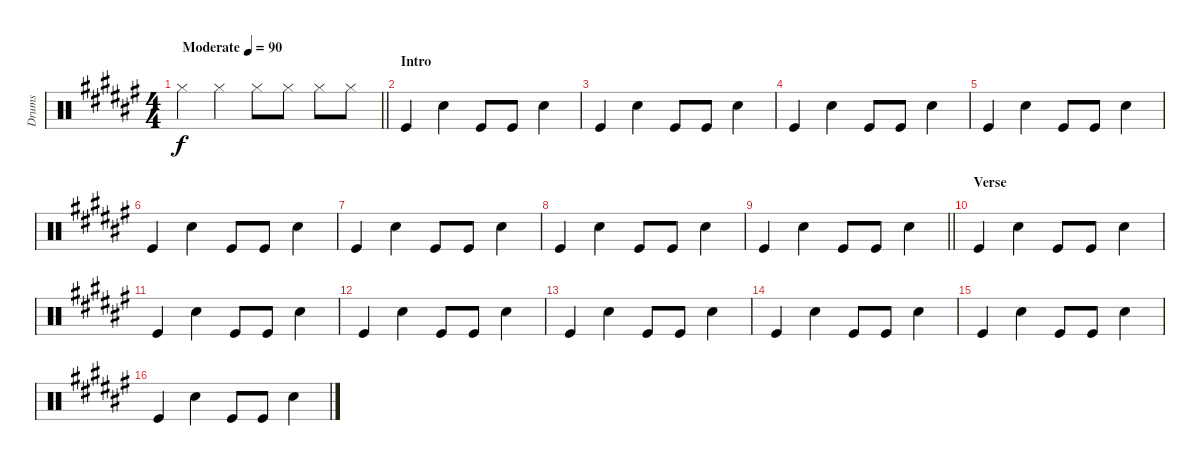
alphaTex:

\track ("Drums" "Drums") {instrument percussion}
\staff {score}
\articulation defaults
\ts (4 4)
\tempo (90 "Moderate")
\clef neutral
\barLineRight lightlight
\ks d#minor "Hi-Hat (closed)".4{dy f} "Hi-Hat (closed)".4 "Hi-Hat (closed)".8 "Hi-Hat (closed)".8 "Hi-Hat (closed)".8 "Hi-Hat (closed)".8
|
\section ("" "Intro")
"Kick (hit)".4 "Snare (hit) 2".4 "Kick (hit)".8 "Kick (hit)".8 "Snare (hit) 2".4 |
"Kick (hit)".4 "Snare (hit) 2".4 "Kick (hit)".8 "Kick (hit)".8 "Snare (hit) 2".4 |
"Kick (hit)".4 "Snare (hit) 2".4 "Kick (hit)".8 "Kick (hit)".8 "Snare (hit) 2".4 |
"Kick (hit)".4 "Snare (hit) 2".4 "Kick (hit)".8 "Kick (hit)".8 "Snare (hit) 2".4 |
"Kick (hit)".4 "Snare (hit) 2".4 "Kick (hit)".8 "Kick (hit)".8 "Snare (hit) 2".4 |
"Kick (hit)".4 "Snare (hit) 2".4 "Kick (hit)".8 "Kick (hit)".8 "Snare (hit) 2".4 |
"Kick (hit)".4 "Snare (hit) 2".4 "Kick (hit)".8 "Kick (hit)".8 "Snare (hit) 2".4 |
\barLineRight lightlight "Kick (hit)".4 "Snare (hit) 2".4 "Kick (hit)".8 "Kick (hit)".8 "Snare (hit) 2".4
|
\section ("" "Verse")
"Kick (hit)".4 "Snare (hit) 2".4 "Kick (hit)".8 "Kick (hit)".8 "Snare (hit) 2".4 |
"Kick (hit)".4 "Snare (hit) 2".4 "Kick (hit)".8 "Kick (hit)".8 "Snare (hit) 2".4 |
"Kick (hit)".4 "Snare (hit) 2".4 "Kick (hit)".8 "Kick (hit)".8 "Snare (hit) 2".4 |
"Kick (hit)".4 "Snare (hit) 2".4 "Kick (hit)".8 "Kick (hit)".8 "Snare (hit) 2".4 |
"Kick (hit)".4 "Snare (hit) 2".4 "Kick (hit)".8 "Kick (hit)".8 "Snare (hit) 2".4 |
"Kick (hit)".4 "Snare (hit) 2".4 "Kick (hit)".8 "Kick (hit)".8 "Snare (hit) 2".4 |
"Kick (hit)".4 "Snare (hit) 2".4 "Kick (hit)".8 "Kick (hit)".8 "Snare (hit) 2".4
